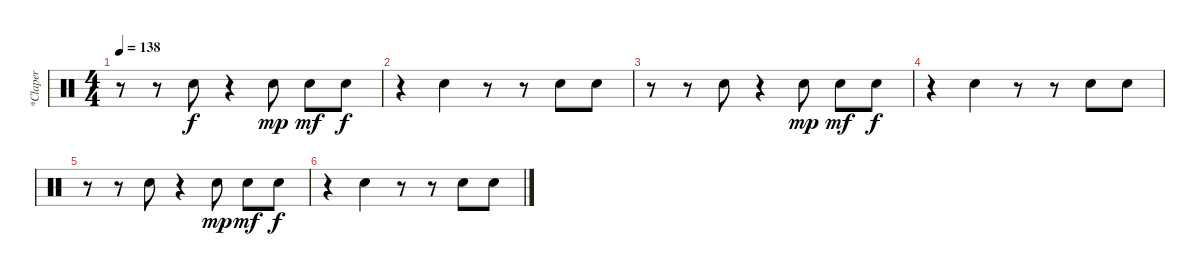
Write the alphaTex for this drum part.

\track ("*Claper" "*Claper") {instrument percussion}
\staff {score}
\articulation defaults
\ts (4 4)
\tempo 138
\clef neutral
\ks c
r.8{dy f} r.8 "Hand Clap (hit)".8 r.4 "Hand Clap (hit)".8{dy mp} "Hand Clap (hit)".8{dy mf} "Hand Clap (hit)".8{dy f} |
r.4 "Hand Clap (hit)".4 r.8 r.8 "Hand Clap (hit)".8 "Hand Clap (hit)".8 |
r.8 r.8 "Hand Clap (hit)".8 r.4 "Hand Clap (hit)".8{dy mp} "Hand Clap (hit)".8{dy mf} "Hand Clap (hit)".8{dy f} |
r.4 "Hand Clap (hit)".4 r.8 r.8 "Hand Clap (hit)".8 "Hand Clap (hit)".8 |
r.8 r.8 "Hand Clap (hit)".8 r.4 "Hand Clap (hit)".8{dy mp} "Hand Clap (hit)".8{dy mf} "Hand Clap (hit)".8{dy f} |
r.4 "Hand Clap (hit)".4 r.8 r.8 "Hand Clap (hit)".8 "Hand Clap (hit)".8
